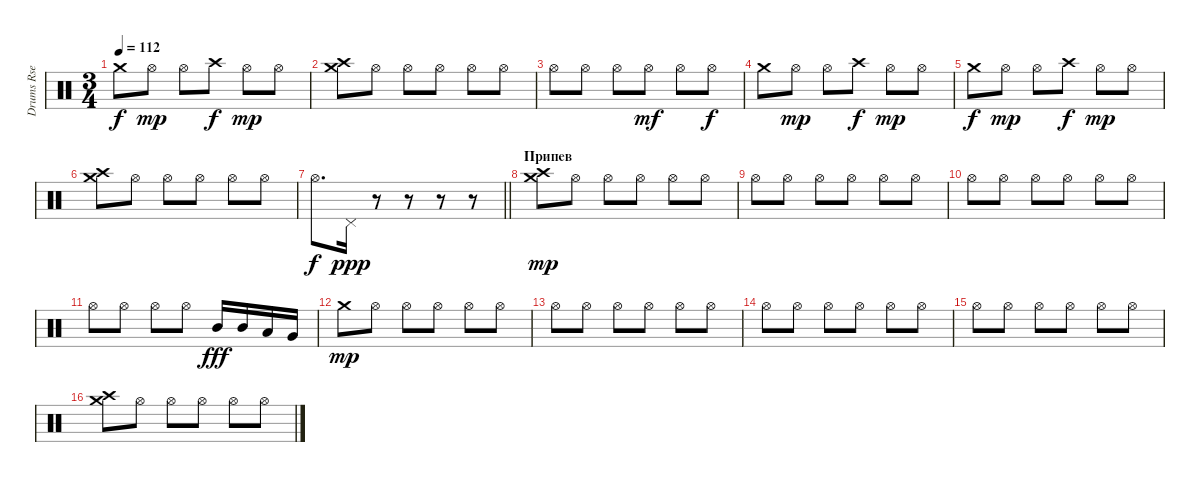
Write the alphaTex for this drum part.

\track ("Drums Rse" "Drums Rse") {instrument percussion}
\staff {score}
\articulation defaults
\ts (3 4)
\tempo 112
\clef neutral
\ks c "Crash medium (hit)".8{dy f} "Hi-Hat (open)".8{dy mp} "Hi-Hat (open)".8 "Crash high (hit)".8{dy f} "Hi-Hat (open)".8{dy mp} "Hi-Hat (open)".8
|
("Crash medium (hit)" "Crash high (hit)").8 "Hi-Hat (open)".8 "Hi-Hat (open)".8 "Hi-Hat (open)".8 "Hi-Hat (open)".8 "Hi-Hat (open)".8 |
"Hi-Hat (open)".8 "Hi-Hat (open)".8 "Hi-Hat (open)".8 "Hi-Hat (open)".8{dy mf} "Hi-Hat (open)".8 "Hi-Hat (open)".8{dy f} |
"Crash medium (hit)".8 "Hi-Hat (open)".8{dy mp} "Hi-Hat (open)".8 "Crash high (hit)".8{dy f} "Hi-Hat (open)".8{dy mp} "Hi-Hat (open)".8 |
"Crash medium (hit)".8{dy f} "Hi-Hat (open)".8{dy mp} "Hi-Hat (open)".8 "Crash high (hit)".8{dy f} "Hi-Hat (open)".8{dy mp} "Hi-Hat (open)".8 |
("Crash medium (hit)" "Crash high (hit)").8 "Hi-Hat (open)".8 "Hi-Hat (open)".8 "Hi-Hat (open)".8 "Hi-Hat (open)".8 "Hi-Hat (open)".8 |
\barLineRight lightlight "Hi-Hat (open)".8{d dy f} "Pedal Hi-Hat (hit)".16{dy ppp}
r.8 r.8 r.8 r.8 |
\section ("" "Припев")
("Crash medium (hit)" "Crash high (hit)").8{dy mp} "Hi-Hat (open)".8 "Hi-Hat (open)".8 "Hi-Hat (open)".8 "Hi-Hat (open)".8 "Hi-Hat (open)".8 |
"Hi-Hat (open)".8 "Hi-Hat (open)".8 "Hi-Hat (open)".8 "Hi-Hat (open)".8 "Hi-Hat (open)".8 "Hi-Hat (open)".8 |
"Hi-Hat (open)".8 "Hi-Hat (open)".8 "Hi-Hat (open)".8 "Hi-Hat (open)".8 "Hi-Hat (open)".8 "Hi-Hat (open)".8 |
"Hi-Hat (open)".8 "Hi-Hat (open)".8 "Hi-Hat (open)".8 "Hi-Hat (open)".8 "Mid Tom (hit)".16{dy fff} "Mid Tom (hit)".16 "Low Tom (hit)".16 "Very Low Tom (hit)".16 |
"Crash medium (hit)".8{dy mp} "Hi-Hat (open)".8 "Hi-Hat (open)".8 "Hi-Hat (open)".8 "Hi-Hat (open)".8 "Hi-Hat (open)".8 |
"Hi-Hat (open)".8 "Hi-Hat (open)".8 "Hi-Hat (open)".8 "Hi-Hat (open)".8 "Hi-Hat (open)".8 "Hi-Hat (open)".8 |
"Hi-Hat (open)".8 "Hi-Hat (open)".8 "Hi-Hat (open)".8 "Hi-Hat (open)".8 "Hi-Hat (open)".8 "Hi-Hat (open)".8 |
"Hi-Hat (open)".8 "Hi-Hat (open)".8 "Hi-Hat (open)".8 "Hi-Hat (open)".8 "Hi-Hat (open)".8 "Hi-Hat (open)".8 |
("Crash medium (hit)" "Crash high (hit)").8 "Hi-Hat (open)".8 "Hi-Hat (open)".8 "Hi-Hat (open)".8 "Hi-Hat (open)".8 "Hi-Hat (open)".8
